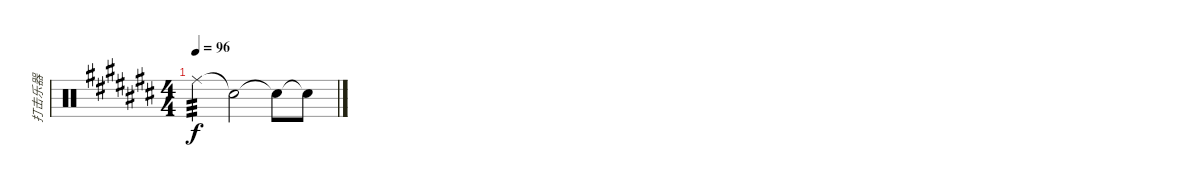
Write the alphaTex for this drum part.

\track ("打击乐器" "打击乐器") {instrument percussion}
\staff {score}
\articulation defaults
\ts (4 4)
\tempo 96
\clef neutral
\ks c# "Ride (middle)".4{tp 3 dy f} "Snare (hit)"{t}.2 "Snare (hit)"{t}.8 "Snare (hit)"{t}.8
